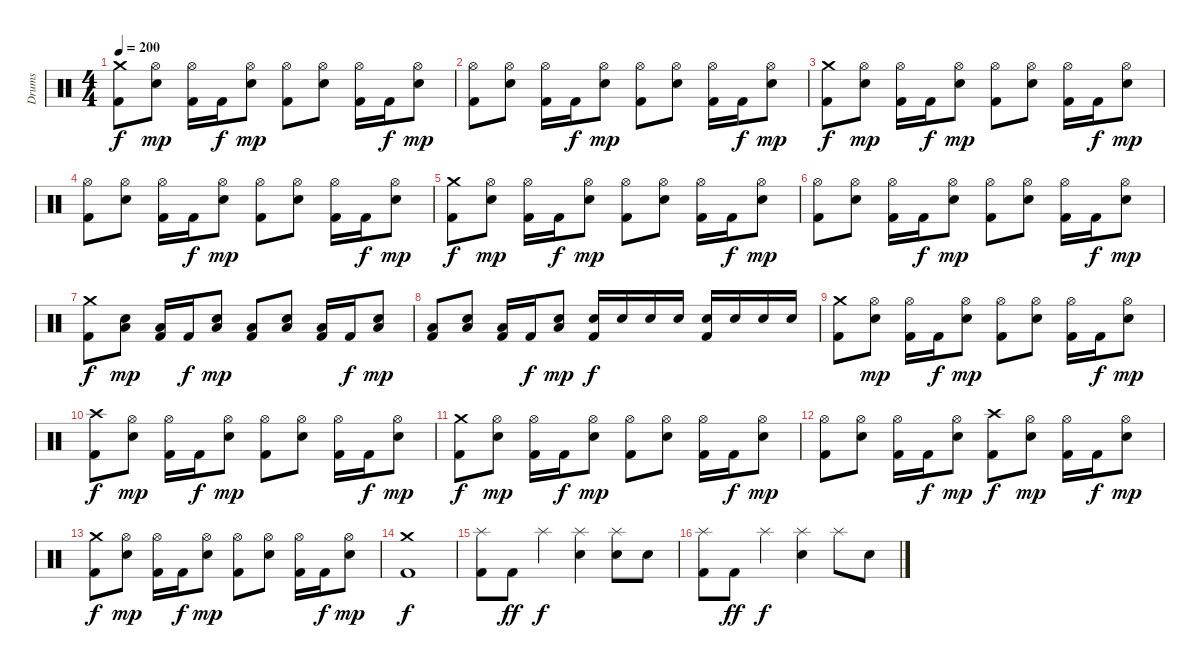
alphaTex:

\track ("Drums" "Drums") {instrument percussion}
\staff {score}
\articulation defaults
\ts (4 4)
\tempo 200
\clef neutral
\ks c
("Crash medium (hit)" "Kick (hit) 2").8{dy f} ("Hi-Hat (open)" "Snare (hit) 2").8{dy mp} ("Hi-Hat (open)" "Kick (hit) 2").16 "Kick (hit) 2".16{dy f} ("Hi-Hat (open)" "Snare (hit) 2").8{dy mp} ("Hi-Hat (open)" "Kick (hit) 2").8 ("Hi-Hat (open)" "Snare (hit) 2").8 ("Hi-Hat (open)" "Kick (hit) 2").16 "Kick (hit) 2".16{dy f} ("Hi-Hat (open)" "Snare (hit) 2").8{dy mp} |
("Hi-Hat (open)" "Kick (hit) 2").8 ("Hi-Hat (open)" "Snare (hit) 2").8 ("Hi-Hat (open)" "Kick (hit) 2").16 "Kick (hit) 2".16{dy f} ("Hi-Hat (open)" "Snare (hit) 2").8{dy mp} ("Hi-Hat (open)" "Kick (hit) 2").8 ("Hi-Hat (open)" "Snare (hit) 2").8 ("Hi-Hat (open)" "Kick (hit) 2").16 "Kick (hit) 2".16{dy f} ("Hi-Hat (open)" "Snare (hit) 2").8{dy mp} |
("Crash medium (hit)" "Kick (hit) 2").8{dy f} ("Hi-Hat (open)" "Snare (hit) 2").8{dy mp} ("Hi-Hat (open)" "Kick (hit) 2").16 "Kick (hit) 2".16{dy f} ("Hi-Hat (open)" "Snare (hit) 2").8{dy mp} ("Hi-Hat (open)" "Kick (hit) 2").8 ("Hi-Hat (open)" "Snare (hit) 2").8 ("Hi-Hat (open)" "Kick (hit) 2").16 "Kick (hit) 2".16{dy f} ("Hi-Hat (open)" "Snare (hit) 2").8{dy mp} |
("Hi-Hat (open)" "Kick (hit) 2").8 ("Hi-Hat (open)" "Snare (hit) 2").8 ("Hi-Hat (open)" "Kick (hit) 2").16 "Kick (hit) 2".16{dy f} ("Hi-Hat (open)" "Snare (hit) 2").8{dy mp} ("Hi-Hat (open)" "Kick (hit) 2").8 ("Hi-Hat (open)" "Snare (hit) 2").8 ("Hi-Hat (open)" "Kick (hit) 2").16 "Kick (hit) 2".16{dy f} ("Hi-Hat (open)" "Snare (hit) 2").8{dy mp} |
("Crash medium (hit)" "Kick (hit) 2").8{dy f} ("Hi-Hat (open)" "Snare (hit) 2").8{dy mp} ("Hi-Hat (open)" "Kick (hit) 2").16 "Kick (hit) 2".16{dy f} ("Hi-Hat (open)" "Snare (hit) 2").8{dy mp} ("Hi-Hat (open)" "Kick (hit) 2").8 ("Hi-Hat (open)" "Snare (hit) 2").8 ("Hi-Hat (open)" "Kick (hit) 2").16 "Kick (hit) 2".16{dy f} ("Hi-Hat (open)" "Snare (hit) 2").8{dy mp} |
("Hi-Hat (open)" "Kick (hit) 2").8 ("Hi-Hat (open)" "Snare (hit) 2").8 ("Hi-Hat (open)" "Kick (hit) 2").16 "Kick (hit) 2".16{dy f} ("Hi-Hat (open)" "Snare (hit) 2").8{dy mp} ("Hi-Hat (open)" "Kick (hit) 2").8 ("Hi-Hat (open)" "Snare (hit) 2").8 ("Hi-Hat (open)" "Kick (hit) 2").16 "Kick (hit) 2".16{dy f} ("Hi-Hat (open)" "Snare (hit) 2").8{dy mp} |
("Crash medium (hit)" "Kick (hit) 2").8{dy f} ("Low Tom (hit)" "Snare (hit) 2").8{dy mp} ("Low Tom (hit)" "Kick (hit) 2").16 "Kick (hit) 2".16{dy f} ("Low Tom (hit)" "Snare (hit) 2").8{dy mp} ("Low Tom (hit)" "Kick (hit) 2").8 ("Low Tom (hit)" "Snare (hit) 2").8 ("Low Tom (hit)" "Kick (hit) 2").16 "Kick (hit) 2".16{dy f} ("Low Tom (hit)" "Snare (hit) 2").8{dy mp} |
("Low Tom (hit)" "Kick (hit) 2").8 ("Low Tom (hit)" "Snare (hit) 2").8 ("Low Tom (hit)" "Kick (hit) 2").16 "Kick (hit) 2".16{dy f} ("Low Tom (hit)" "Snare (hit) 2").8{dy mp} ("Snare (hit) 2" "Kick (hit) 2").16{dy f} "Snare (hit) 2".16 "Snare (hit) 2".16 "Snare (hit) 2".16 ("Snare (hit) 2" "Kick (hit) 2").16 "Snare (hit) 2".16 "Snare (hit) 2".16 "Snare (hit) 2".16 |
("Crash medium (hit)" "Kick (hit) 2").8 ("Hi-Hat (open)" "Snare (hit) 2").8{dy mp} ("Hi-Hat (open)" "Kick (hit) 2").16 "Kick (hit) 2".16{dy f} ("Hi-Hat (open)" "Snare (hit) 2").8{dy mp} ("Hi-Hat (open)" "Kick (hit) 2").8 ("Hi-Hat (open)" "Snare (hit) 2").8 ("Hi-Hat (open)" "Kick (hit) 2").16 "Kick (hit) 2".16{dy f} ("Hi-Hat (open)" "Snare (hit) 2").8{dy mp} |
("Crash high (hit)" "Kick (hit) 2").8{dy f} ("Hi-Hat (open)" "Snare (hit) 2").8{dy mp} ("Hi-Hat (open)" "Kick (hit) 2").16 "Kick (hit) 2".16{dy f} ("Hi-Hat (open)" "Snare (hit) 2").8{dy mp} ("Hi-Hat (open)" "Kick (hit) 2").8 ("Hi-Hat (open)" "Snare (hit) 2").8 ("Hi-Hat (open)" "Kick (hit) 2").16 "Kick (hit) 2".16{dy f} ("Hi-Hat (open)" "Snare (hit) 2").8{dy mp} |
("Crash medium (hit)" "Kick (hit) 2").8{dy f} ("Hi-Hat (open)" "Snare (hit) 2").8{dy mp} ("Hi-Hat (open)" "Kick (hit) 2").16 "Kick (hit) 2".16{dy f} ("Hi-Hat (open)" "Snare (hit) 2").8{dy mp} ("Hi-Hat (open)" "Kick (hit) 2").8 ("Hi-Hat (open)" "Snare (hit) 2").8 ("Hi-Hat (open)" "Kick (hit) 2").16 "Kick (hit) 2".16{dy f} ("Hi-Hat (open)" "Snare (hit) 2").8{dy mp} |
("Hi-Hat (open)" "Kick (hit) 2").8 ("Hi-Hat (open)" "Snare (hit) 2").8 ("Hi-Hat (open)" "Kick (hit) 2").16 "Kick (hit) 2".16{dy f} ("Hi-Hat (open)" "Snare (hit) 2").8{dy mp} ("Crash high (hit)" "Kick (hit) 2").8{dy f} ("Hi-Hat (open)" "Snare (hit) 2").8{dy mp} ("Hi-Hat (open)" "Kick (hit) 2").16 "Kick (hit) 2".16{dy f} ("Hi-Hat (open)" "Snare (hit) 2").8{dy mp} |
("Crash medium (hit)" "Kick (hit) 2").8{dy f} ("Hi-Hat (open)" "Snare (hit) 2").8{dy mp} ("Hi-Hat (open)" "Kick (hit) 2").16 "Kick (hit) 2".16{dy f} ("Hi-Hat (open)" "Snare (hit) 2").8{dy mp} ("Hi-Hat (open)" "Kick (hit) 2").8 ("Hi-Hat (open)" "Snare (hit) 2").8 ("Hi-Hat (open)" "Kick (hit) 2").16 "Kick (hit) 2".16{dy f} ("Hi-Hat (open)" "Snare (hit) 2").8{dy mp} |
("Crash medium (hit)" "Kick (hit) 2").1{dy f} |
("Splash (hit)" "Kick (hit) 2").8 "Kick (hit) 2".8{dy ff} "Splash (hit)".4{dy f} ("Splash (hit)" "Snare (hit) 2").4 ("Splash (hit)" "Snare (hit) 2").8 "Snare (hit) 2".8 |
("Splash (hit)" "Kick (hit) 2").8 "Kick (hit) 2".8{dy ff} "Splash (hit)".4{dy f} ("Splash (hit)" "Snare (hit) 2").4 "Splash (hit)".8 "Snare (hit) 2".8
